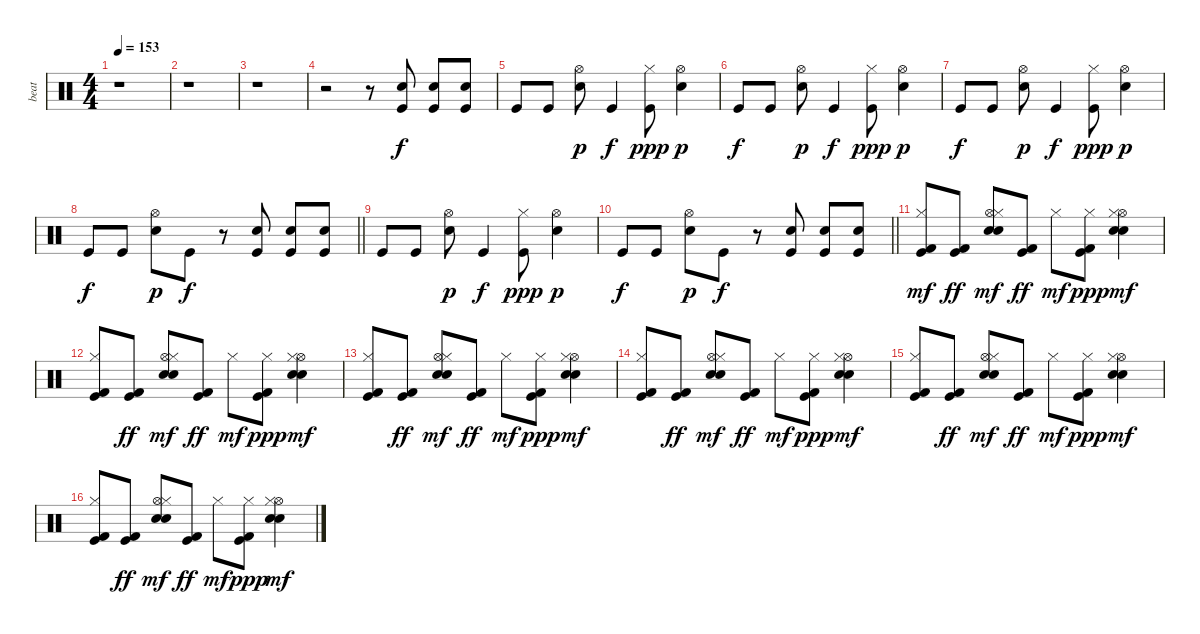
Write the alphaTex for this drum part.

\track ("beat" "beat") {instrument percussion}
\staff {score}
\articulation defaults
\ts (4 4)
\tempo 153
\clef neutral
\ks c
r.1{dy f} |
r.1 |
r.1 |
r.2 r.8 ("Kick (hit)" "Electric Snare (hit)").8 ("Kick (hit)" "Electric Snare (hit)").8 ("Kick (hit)" "Electric Snare (hit)").8 |
"Kick (hit)".8 "Kick (hit)".8 ("Electric Snare (hit)" "Hi-Hat (open)").8{dy p} "Kick (hit)".4{dy f} ("Kick (hit)" "Hi-Hat (closed)").8{dy ppp} ("Electric Snare (hit)" "Hi-Hat (open)").4{dy p} |
"Kick (hit)".8{dy f} "Kick (hit)".8 ("Electric Snare (hit)" "Hi-Hat (open)").8{dy p} "Kick (hit)".4{dy f} ("Kick (hit)" "Hi-Hat (closed)").8{dy ppp} ("Electric Snare (hit)" "Hi-Hat (open)").4{dy p} |
"Kick (hit)".8{dy f} "Kick (hit)".8 ("Electric Snare (hit)" "Hi-Hat (open)").8{dy p} "Kick (hit)".4{dy f} ("Kick (hit)" "Hi-Hat (closed)").8{dy ppp} ("Electric Snare (hit)" "Hi-Hat (open)").4{dy p} |
\barLineRight lightlight "Kick (hit)".8{dy f} "Kick (hit)".8
("Electric Snare (hit)" "Hi-Hat (open)").8{dy p} "Kick (hit)".8{dy f} r.8 ("Kick (hit)" "Electric Snare (hit)").8 ("Kick (hit)" "Electric Snare (hit)").8 ("Kick (hit)" "Electric Snare (hit)").8 |
"Kick (hit)".8 "Kick (hit)".8 ("Electric Snare (hit)" "Hi-Hat (open)").8{dy p} "Kick (hit)".4{dy f} ("Kick (hit)" "Hi-Hat (closed)").8{dy ppp} ("Electric Snare (hit)" "Hi-Hat (open)").4{dy p} |
\barLineRight lightlight "Kick (hit)".8{dy f} "Kick (hit)".8
("Electric Snare (hit)" "Hi-Hat (open)").8{dy p} "Kick (hit)".8{dy f} r.8 ("Kick (hit)" "Electric Snare (hit)").8 ("Kick (hit)" "Electric Snare (hit)").8 ("Kick (hit)" "Electric Snare (hit)").8 |
("Kick (hit)" "Kick (hit) 2" "Hi-Hat (closed)").8{dy mf} ("Kick (hit)" "Kick (hit) 2").8{dy ff} ("Snare (hit) 2" "Electric Snare (hit)" "Hi-Hat (open)" "Hi-Hat (closed)").8{dy mf} ("Kick (hit)" "Kick (hit) 2").8{dy ff} "Hi-Hat (closed)".8{dy mf} ("Kick (hit)" "Kick (hit) 2" "Hi-Hat (closed)").8{dy ppp} ("Snare (hit) 2" "Electric Snare (hit)" "Hi-Hat (open)" "Hi-Hat (closed)").4{dy mf} |
("Kick (hit)" "Kick (hit) 2" "Hi-Hat (closed)").8 ("Kick (hit)" "Kick (hit) 2").8{dy ff} ("Snare (hit) 2" "Electric Snare (hit)" "Hi-Hat (open)" "Hi-Hat (closed)").8{dy mf} ("Kick (hit)" "Kick (hit) 2").8{dy ff} "Hi-Hat (closed)".8{dy mf} ("Kick (hit)" "Kick (hit) 2" "Hi-Hat (closed)").8{dy ppp} ("Snare (hit) 2" "Electric Snare (hit)" "Hi-Hat (open)" "Hi-Hat (closed)").4{dy mf} |
("Kick (hit)" "Kick (hit) 2" "Hi-Hat (closed)").8 ("Kick (hit)" "Kick (hit) 2").8{dy ff} ("Snare (hit) 2" "Electric Snare (hit)" "Hi-Hat (open)" "Hi-Hat (closed)").8{dy mf} ("Kick (hit)" "Kick (hit) 2").8{dy ff} "Hi-Hat (closed)".8{dy mf} ("Kick (hit)" "Kick (hit) 2" "Hi-Hat (closed)").8{dy ppp} ("Snare (hit) 2" "Electric Snare (hit)" "Hi-Hat (open)" "Hi-Hat (closed)").4{dy mf} |
("Kick (hit)" "Kick (hit) 2" "Hi-Hat (closed)").8 ("Kick (hit)" "Kick (hit) 2").8{dy ff} ("Snare (hit) 2" "Electric Snare (hit)" "Hi-Hat (open)" "Hi-Hat (closed)").8{dy mf} ("Kick (hit)" "Kick (hit) 2").8{dy ff} "Hi-Hat (closed)".8{dy mf} ("Kick (hit)" "Kick (hit) 2" "Hi-Hat (closed)").8{dy ppp} ("Snare (hit) 2" "Electric Snare (hit)" "Hi-Hat (open)" "Hi-Hat (closed)").4{dy mf} |
("Kick (hit)" "Kick (hit) 2" "Hi-Hat (closed)").8 ("Kick (hit)" "Kick (hit) 2").8{dy ff} ("Snare (hit) 2" "Electric Snare (hit)" "Hi-Hat (open)" "Hi-Hat (closed)").8{dy mf} ("Kick (hit)" "Kick (hit) 2").8{dy ff} "Hi-Hat (closed)".8{dy mf} ("Kick (hit)" "Kick (hit) 2" "Hi-Hat (closed)").8{dy ppp} ("Snare (hit) 2" "Electric Snare (hit)" "Hi-Hat (open)" "Hi-Hat (closed)").4{dy mf} |
("Kick (hit)" "Kick (hit) 2" "Hi-Hat (closed)").8 ("Kick (hit)" "Kick (hit) 2").8{dy ff} ("Snare (hit) 2" "Electric Snare (hit)" "Hi-Hat (open)" "Hi-Hat (closed)").8{dy mf} ("Kick (hit)" "Kick (hit) 2").8{dy ff} "Hi-Hat (closed)".8{dy mf} ("Kick (hit)" "Kick (hit) 2" "Hi-Hat (closed)").8{dy ppp} ("Snare (hit) 2" "Electric Snare (hit)" "Hi-Hat (open)" "Hi-Hat (closed)").4{dy mf}
